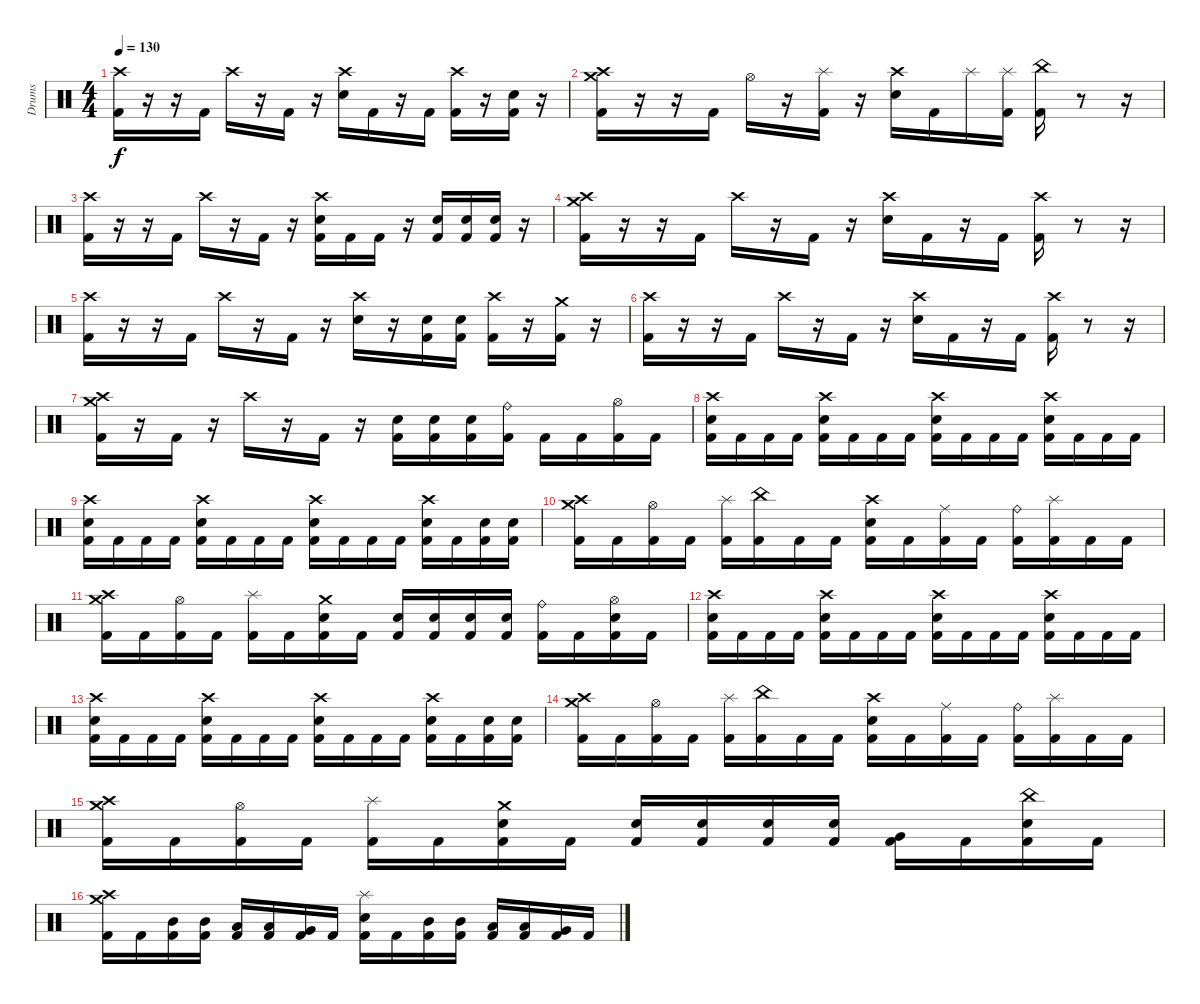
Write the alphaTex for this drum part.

\track ("Drums" "Drums") {instrument percussion}
\staff {score}
\articulation defaults
\ts (4 4)
\tempo 130
\clef neutral
\ks c
("Crash high (hit)" "Kick (hit) 2").16{dy f} r.16 r.16 "Kick (hit) 2".16 "Crash high (hit)".16 r.16 "Kick (hit) 2".16 r.16 ("Crash high (hit)" "Electric Snare (hit)").16 "Kick (hit) 2".16 r.16 "Kick (hit) 2".16 ("Crash high (hit)" "Kick (hit) 2").16 r.16 ("Electric Snare (hit)" "Kick (hit) 2").16 r.16 |
("Crash high (hit)" "Crash medium (hit)" "Kick (hit) 2").16 r.16 r.16 "Kick (hit) 2".16 "Hi-Hat (open)".16 r.16 ("Splash (hit)" "Kick (hit) 2").16 r.16 ("Crash high (hit)" "Electric Snare (hit)").16 "Kick (hit) 2".16 "Splash (hit)".16 ("Splash (hit)" "Kick (hit) 2").16 ("China (hit)" "Kick (hit) 2").16 r.8 r.16 |
("Crash high (hit)" "Kick (hit) 2").16 r.16 r.16 "Kick (hit) 2".16 "Crash high (hit)".16 r.16 "Kick (hit) 2".16 r.16 ("Crash high (hit)" "Electric Snare (hit)" "Kick (hit) 2").16 "Kick (hit) 2".16 "Kick (hit) 2".16 r.16 ("Electric Snare (hit)" "Kick (hit) 2").16 ("Electric Snare (hit)" "Kick (hit) 2").16 ("Electric Snare (hit)" "Kick (hit) 2").16 r.16 |
("Crash high (hit)" "Crash medium (hit)" "Kick (hit) 2").16 r.16 r.16 "Kick (hit) 2".16 "Crash high (hit)".16 r.16 "Kick (hit) 2".16 r.16 ("Crash high (hit)" "Electric Snare (hit)").16 "Kick (hit) 2".16 r.16 "Kick (hit) 2".16 ("Crash high (hit)" "Kick (hit) 2").16 r.8 r.16 |
("Crash high (hit)" "Kick (hit) 2").16 r.16 r.16 "Kick (hit) 2".16 "Crash high (hit)".16 r.16 "Kick (hit) 2".16 r.16 ("Crash high (hit)" "Electric Snare (hit)").16 r.16 ("Electric Snare (hit)" "Kick (hit) 2").16 ("Electric Snare (hit)" "Kick (hit) 2").16 ("Crash high (hit)" "Kick (hit) 2").16 r.16 ("Crash medium (hit)" "Kick (hit) 2").16 r.16 |
("Crash high (hit)" "Kick (hit) 2").16 r.16 r.16 "Kick (hit) 2".16 "Crash high (hit)".16 r.16 "Kick (hit) 2".16 r.16 ("Crash high (hit)" "Electric Snare (hit)").16 "Kick (hit) 2".16 r.16 "Kick (hit) 2".16 ("Crash high (hit)" "Kick (hit) 2").16 r.8 r.16 |
("Crash high (hit)" "Crash medium (hit)" "Kick (hit) 2").16 r.16 "Kick (hit) 2".16 r.16 "Crash high (hit)".16 r.16 "Kick (hit) 2".16 r.16 ("Electric Snare (hit)" "Kick (hit) 2").16 ("Electric Snare (hit)" "Kick (hit) 2").16 ("Electric Snare (hit)" "Kick (hit) 2").16 ("Ride (bell)" "Kick (hit) 2").16 "Kick (hit) 2".16 "Kick (hit) 2".16 ("Hi-Hat (open)" "Kick (hit) 2").16 "Kick (hit) 2".16 |
("Crash high (hit)" "Electric Snare (hit)" "Kick (hit) 2").16 "Kick (hit) 2".16 "Kick (hit) 2".16 "Kick (hit) 2".16 ("Crash high (hit)" "Electric Snare (hit)" "Kick (hit) 2").16 "Kick (hit) 2".16 "Kick (hit) 2".16 "Kick (hit) 2".16 ("Crash high (hit)" "Electric Snare (hit)" "Kick (hit) 2").16 "Kick (hit) 2".16 "Kick (hit) 2".16 "Kick (hit) 2".16 ("Crash high (hit)" "Electric Snare (hit)" "Kick (hit) 2").16 "Kick (hit) 2".16 "Kick (hit) 2".16 "Kick (hit) 2".16 |
("Crash high (hit)" "Electric Snare (hit)" "Kick (hit) 2").16 "Kick (hit) 2".16 "Kick (hit) 2".16 "Kick (hit) 2".16 ("Crash high (hit)" "Electric Snare (hit)" "Kick (hit) 2").16 "Kick (hit) 2".16 "Kick (hit) 2".16 "Kick (hit) 2".16 ("Crash high (hit)" "Electric Snare (hit)" "Kick (hit) 2").16 "Kick (hit) 2".16 "Kick (hit) 2".16 "Kick (hit) 2".16 ("Crash high (hit)" "Electric Snare (hit)" "Kick (hit) 2").16 "Kick (hit) 2".16 ("Electric Snare (hit)" "Kick (hit) 2").16 ("Electric Snare (hit)" "Kick (hit) 2").16 |
("Crash high (hit)" "Crash medium (hit)" "Kick (hit) 2").16 "Kick (hit) 2".16 ("Hi-Hat (open)" "Kick (hit) 2").16 "Kick (hit) 2".16 ("Splash (hit)" "Kick (hit) 2").16 ("China (hit)" "Kick (hit) 2").16 "Kick (hit) 2".16 "Kick (hit) 2".16 ("Crash high (hit)" "Electric Snare (hit)" "Kick (hit) 2").16 "Kick (hit) 2".16 ("Ride (middle)" "Kick (hit) 2").16 "Kick (hit) 2".16 ("Ride (bell)" "Kick (hit) 2").16 ("Splash (hit)" "Kick (hit) 2").16 "Kick (hit) 2".16 "Kick (hit) 2".16 |
("Crash high (hit)" "Crash medium (hit)" "Kick (hit) 2").16 "Kick (hit) 2".16 ("Hi-Hat (open)" "Kick (hit) 2").16 "Kick (hit) 2".16 ("Splash (hit)" "Kick (hit) 2").16 "Kick (hit) 2".16 ("Crash medium (hit)" "Electric Snare (hit)" "Kick (hit) 2").16 "Kick (hit) 2".16 ("Electric Snare (hit)" "Kick (hit) 2").16 ("Electric Snare (hit)" "Kick (hit) 2").16 ("Electric Snare (hit)" "Kick (hit) 2").16 ("Electric Snare (hit)" "Kick (hit) 2").16 ("Ride (bell)" "Kick (hit) 2").16 "Kick (hit) 2".16 ("Electric Snare (hit)" "Hi-Hat (open)" "Kick (hit) 2").16 "Kick (hit) 2".16 |
("Crash high (hit)" "Electric Snare (hit)" "Kick (hit) 2").16 "Kick (hit) 2".16 "Kick (hit) 2".16 "Kick (hit) 2".16 ("Crash high (hit)" "Electric Snare (hit)" "Kick (hit) 2").16 "Kick (hit) 2".16 "Kick (hit) 2".16 "Kick (hit) 2".16 ("Crash high (hit)" "Electric Snare (hit)" "Kick (hit) 2").16 "Kick (hit) 2".16 "Kick (hit) 2".16 "Kick (hit) 2".16 ("Crash high (hit)" "Electric Snare (hit)" "Kick (hit) 2").16 "Kick (hit) 2".16 "Kick (hit) 2".16 "Kick (hit) 2".16 |
("Crash high (hit)" "Electric Snare (hit)" "Kick (hit) 2").16 "Kick (hit) 2".16 "Kick (hit) 2".16 "Kick (hit) 2".16 ("Crash high (hit)" "Electric Snare (hit)" "Kick (hit) 2").16 "Kick (hit) 2".16 "Kick (hit) 2".16 "Kick (hit) 2".16 ("Crash high (hit)" "Electric Snare (hit)" "Kick (hit) 2").16 "Kick (hit) 2".16 "Kick (hit) 2".16 "Kick (hit) 2".16 ("Crash high (hit)" "Electric Snare (hit)" "Kick (hit) 2").16 "Kick (hit) 2".16 ("Electric Snare (hit)" "Kick (hit) 2").16 ("Electric Snare (hit)" "Kick (hit) 2").16 |
("Crash high (hit)" "Crash medium (hit)" "Kick (hit) 2").16 "Kick (hit) 2".16 ("Hi-Hat (open)" "Kick (hit) 2").16 "Kick (hit) 2".16 ("Splash (hit)" "Kick (hit) 2").16 ("China (hit)" "Kick (hit) 2").16 "Kick (hit) 2".16 "Kick (hit) 2".16 ("Crash high (hit)" "Electric Snare (hit)" "Kick (hit) 2").16 "Kick (hit) 2".16 ("Ride (middle)" "Kick (hit) 2").16 "Kick (hit) 2".16 ("Ride (bell)" "Kick (hit) 2").16 ("Splash (hit)" "Kick (hit) 2").16 "Kick (hit) 2".16 "Kick (hit) 2".16 |
("Crash high (hit)" "Crash medium (hit)" "Kick (hit) 2").16 "Kick (hit) 2".16 ("Hi-Hat (open)" "Kick (hit) 2").16 "Kick (hit) 2".16 ("Splash (hit)" "Kick (hit) 2").16 "Kick (hit) 2".16 ("Crash medium (hit)" "Electric Snare (hit)" "Kick (hit) 2").16 "Kick (hit) 2".16 ("Electric Snare (hit)" "Kick (hit) 2").16 ("Electric Snare (hit)" "Kick (hit) 2").16 ("Electric Snare (hit)" "Kick (hit) 2").16 ("Electric Snare (hit)" "Kick (hit) 2").16 ("Very Low Tom (hit)" "Kick (hit) 2").16 "Kick (hit) 2".16 ("China (hit)" "Electric Snare (hit)" "Kick (hit) 2").16 "Kick (hit) 2".16 |
("Crash high (hit)" "Crash medium (hit)" "Kick (hit) 2").16 "Kick (hit) 2".16 ("Mid Tom (hit)" "Kick (hit) 2").16 ("Mid Tom (hit)" "Kick (hit) 2").16 ("Low Tom (hit)" "Kick (hit) 2").16 ("Low Tom (hit)" "Kick (hit) 2").16 ("Very Low Tom (hit)" "Kick (hit) 2").16 "Kick (hit) 2".16 ("Splash (hit)" "Electric Snare (hit)" "Kick (hit) 2").16 "Kick (hit) 2".16 ("Mid Tom (hit)" "Kick (hit) 2").16 ("Mid Tom (hit)" "Kick (hit) 2").16 ("Low Tom (hit)" "Kick (hit) 2").16 ("Low Tom (hit)" "Kick (hit) 2").16 ("Very Low Tom (hit)" "Kick (hit) 2").16 "Kick (hit) 2".16
